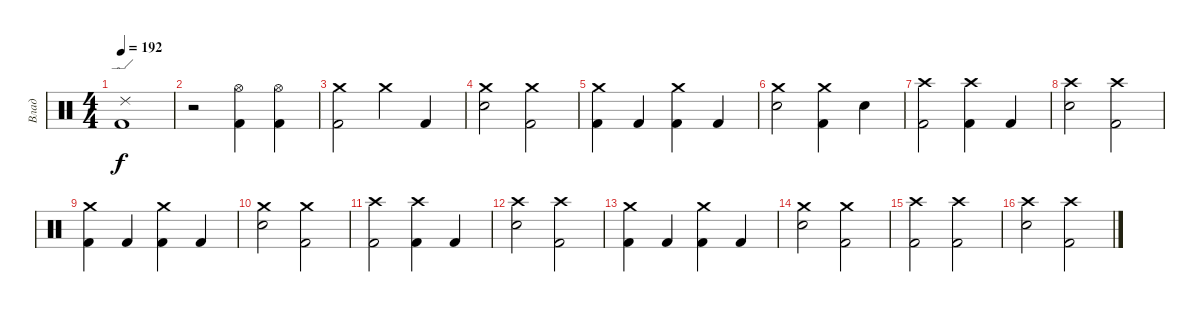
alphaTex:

\track ("Влад" "Влад") {instrument percussion}
\staff {score}
\articulation defaults
\ts (4 4)
\tempo 192
\clef neutral
\ks c
("Ride (edge) 2" "Kick (hit) 2").1{dy f} |
r.2 ("Hi-Hat (open)" "Kick (hit) 2").4 ("Hi-Hat (open)" "Kick (hit) 2").4 |
("Crash medium (hit)" "Kick (hit) 2").2 "Crash medium (hit)".4 "Kick (hit) 2".4 |
("Crash medium (hit)" "Snare (hit) 2").2 ("Crash medium (hit)" "Kick (hit) 2").2 |
("Crash medium (hit)" "Kick (hit) 2").4 "Kick (hit) 2".4 ("Crash medium (hit)" "Kick (hit) 2").4 "Kick (hit) 2".4 |
("Crash medium (hit)" "Snare (hit) 2").2 ("Crash medium (hit)" "Kick (hit) 2").4 "Snare (hit) 2"{tr (38 16)}.4 |
("Crash high (hit)" "Kick (hit) 2").2 ("Crash high (hit)" "Kick (hit) 2").4 "Kick (hit) 2".4 |
("Crash high (hit)" "Snare (hit) 2").2 ("Crash high (hit)" "Kick (hit) 2").2 |
("Crash medium (hit)" "Kick (hit) 2").4 "Kick (hit) 2".4 ("Crash medium (hit)" "Kick (hit) 2").4 "Kick (hit) 2".4 |
("Crash medium (hit)" "Snare (hit) 2").2 ("Crash medium (hit)" "Kick (hit) 2").2 |
("Crash high (hit)" "Kick (hit) 2").2 ("Crash high (hit)" "Kick (hit) 2").4 "Kick (hit) 2".4 |
("Crash high (hit)" "Snare (hit) 2").2 ("Crash high (hit)" "Kick (hit) 2").2 |
("Crash medium (hit)" "Kick (hit) 2").4 "Kick (hit) 2".4 ("Crash medium (hit)" "Kick (hit) 2").4 "Kick (hit) 2".4 |
("Crash medium (hit)" "Snare (hit) 2").2 ("Crash medium (hit)" "Kick (hit) 2").2 |
("Crash high (hit)" "Kick (hit) 2").2 ("Crash high (hit)" "Kick (hit) 2").2 |
("Crash high (hit)" "Snare (hit) 2").2 ("Crash high (hit)" "Kick (hit) 2").2
